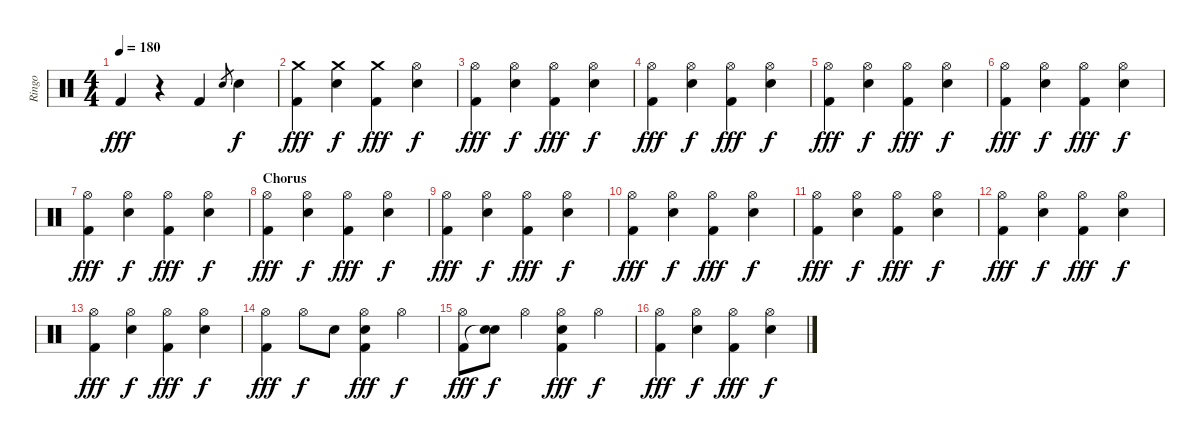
\track ("Ringo" "Ringo") {instrument percussion}
\staff {score}
\articulation defaults
\ts (4 4)
\tempo 180
\clef neutral
\ks c "Kick (hit) 2".4{dy fff}
r.4 "Kick (hit) 2".4 "Snare (hit) 2".8{gr} "Snare (hit) 2".4{dy f} |
("Crash medium (hit)" "Kick (hit) 2").4{dy fff} ("Crash medium (hit)" "Snare (hit) 2").4{dy f} ("Crash medium (hit)" "Kick (hit) 2").4{dy fff} ("Hi-Hat (open)" "Snare (hit) 2").4{dy f} |
("Hi-Hat (open)" "Kick (hit) 2").4{dy fff} ("Hi-Hat (open)" "Snare (hit) 2").4{dy f} ("Hi-Hat (open)" "Kick (hit) 2").4{dy fff} ("Hi-Hat (open)" "Snare (hit) 2").4{dy f} |
("Hi-Hat (open)" "Kick (hit) 2").4{dy fff} ("Hi-Hat (open)" "Snare (hit) 2").4{dy f} ("Hi-Hat (open)" "Kick (hit) 2").4{dy fff} ("Hi-Hat (open)" "Snare (hit) 2").4{dy f} |
("Hi-Hat (open)" "Kick (hit) 2").4{dy fff} ("Hi-Hat (open)" "Snare (hit) 2").4{dy f} ("Hi-Hat (open)" "Kick (hit) 2").4{dy fff} ("Hi-Hat (open)" "Snare (hit) 2").4{dy f} |
("Hi-Hat (open)" "Kick (hit) 2").4{dy fff} ("Hi-Hat (open)" "Snare (hit) 2").4{dy f} ("Hi-Hat (open)" "Kick (hit) 2").4{dy fff} ("Hi-Hat (open)" "Snare (hit) 2").4{dy f} |
("Hi-Hat (open)" "Kick (hit) 2").4{dy fff} ("Hi-Hat (open)" "Snare (hit) 2").4{dy f} ("Hi-Hat (open)" "Kick (hit) 2").4{dy fff} ("Hi-Hat (open)" "Snare (hit) 2").4{dy f} |
\section ("" "Chorus")
("Hi-Hat (open)" "Kick (hit) 2").4{dy fff} ("Hi-Hat (open)" "Snare (hit) 2").4{dy f} ("Hi-Hat (open)" "Kick (hit) 2").4{dy fff} ("Hi-Hat (open)" "Snare (hit) 2").4{dy f} |
("Hi-Hat (open)" "Kick (hit) 2").4{dy fff} ("Hi-Hat (open)" "Snare (hit) 2").4{dy f} ("Hi-Hat (open)" "Kick (hit) 2").4{dy fff} ("Hi-Hat (open)" "Snare (hit) 2").4{dy f} |
("Hi-Hat (open)" "Kick (hit) 2").4{dy fff} ("Hi-Hat (open)" "Snare (hit) 2").4{dy f} ("Hi-Hat (open)" "Kick (hit) 2").4{dy fff} ("Hi-Hat (open)" "Snare (hit) 2").4{dy f} |
("Hi-Hat (open)" "Kick (hit) 2").4{dy fff} ("Hi-Hat (open)" "Snare (hit) 2").4{dy f} ("Hi-Hat (open)" "Kick (hit) 2").4{dy fff} ("Hi-Hat (open)" "Snare (hit) 2").4{dy f} |
("Hi-Hat (open)" "Kick (hit) 2").4{dy fff} ("Hi-Hat (open)" "Snare (hit) 2").4{dy f} ("Hi-Hat (open)" "Kick (hit) 2").4{dy fff} ("Hi-Hat (open)" "Snare (hit) 2").4{dy f} |
("Hi-Hat (open)" "Kick (hit) 2").4{dy fff} ("Hi-Hat (open)" "Snare (hit) 2").4{dy f} ("Hi-Hat (open)" "Kick (hit) 2").4{dy fff} ("Hi-Hat (open)" "Snare (hit) 2").4{dy f} |
("Hi-Hat (open)" "Kick (hit) 2").4{dy fff} "Hi-Hat (open)".8{dy f} "Snare (hit) 2".8 ("Hi-Hat (open)" "Snare (hit) 2" "Kick (hit) 2").4{dy fff} "Hi-Hat (open)".4{dy f} |
("Hi-Hat (open)" "Kick (hit) 2").8{dy fff} ("Snare (hit) 2" "Snare (hit)"{t}).8{dy f} "Hi-Hat (open)".4 ("Hi-Hat (open)" "Snare (hit) 2" "Kick (hit) 2").4{dy fff} "Hi-Hat (open)".4{dy f} |
("Hi-Hat (open)" "Kick (hit) 2").4{dy fff} ("Hi-Hat (open)" "Snare (hit) 2").4{dy f} ("Hi-Hat (open)" "Kick (hit) 2").4{dy fff} ("Hi-Hat (open)" "Snare (hit) 2").4{dy f}
